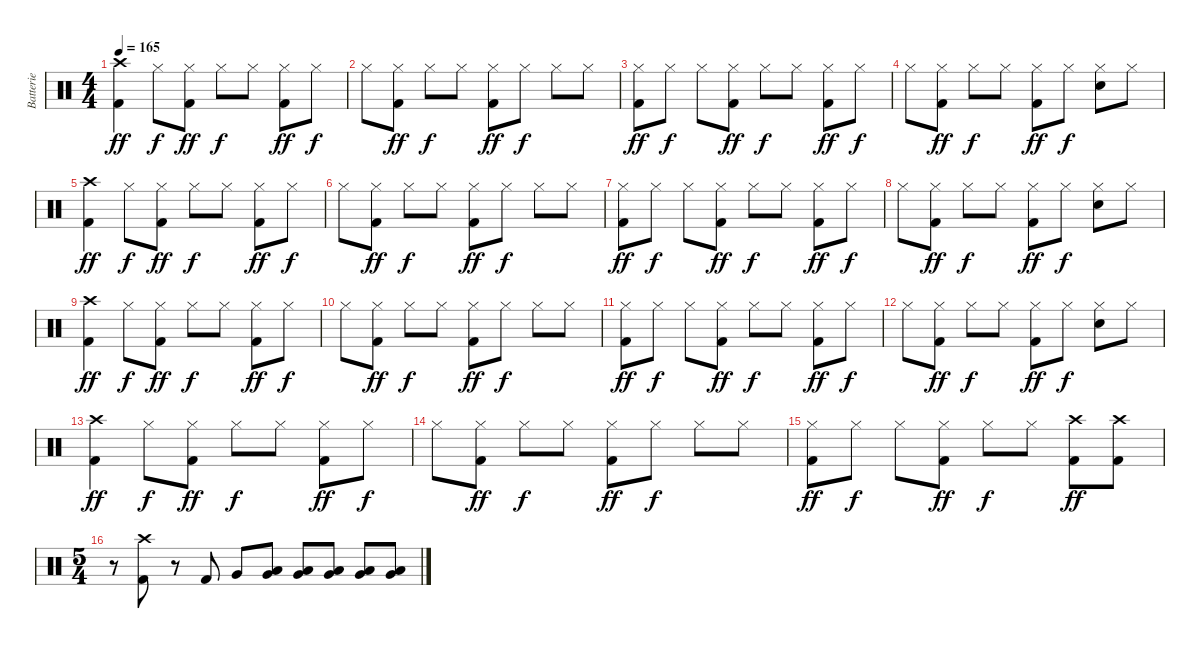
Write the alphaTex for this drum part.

\track ("Batterie" "Batterie") {instrument percussion}
\staff {score}
\articulation defaults
\ts (4 4)
\tempo 165
\clef neutral
\ks c
("Crash high (hit)" "Kick (hit) 2").4{dy ff} "Hi-Hat (closed)".8{dy f} ("Hi-Hat (closed)" "Kick (hit) 2").8{dy ff} "Hi-Hat (closed)".8{dy f} "Hi-Hat (closed)".8 ("Hi-Hat (closed)" "Kick (hit) 2").8{dy ff} "Hi-Hat (closed)".8{dy f} |
"Hi-Hat (closed)".8 ("Hi-Hat (closed)" "Kick (hit) 2").8{dy ff} "Hi-Hat (closed)".8{dy f} "Hi-Hat (closed)".8 ("Hi-Hat (closed)" "Kick (hit) 2").8{dy ff} "Hi-Hat (closed)".8{dy f} "Hi-Hat (closed)".8 "Hi-Hat (closed)".8 |
("Hi-Hat (closed)" "Kick (hit) 2").8{dy ff} "Hi-Hat (closed)".8{dy f} "Hi-Hat (closed)".8 ("Hi-Hat (closed)" "Kick (hit) 2").8{dy ff} "Hi-Hat (closed)".8{dy f} "Hi-Hat (closed)".8 ("Hi-Hat (closed)" "Kick (hit) 2").8{dy ff} "Hi-Hat (closed)".8{dy f} |
"Hi-Hat (closed)".8 ("Hi-Hat (closed)" "Kick (hit) 2").8{dy ff} "Hi-Hat (closed)".8{dy f} "Hi-Hat (closed)".8 ("Hi-Hat (closed)" "Kick (hit) 2").8{dy ff} "Hi-Hat (closed)".8{dy f} ("Hi-Hat (closed)" "Snare (hit) 2").8 "Hi-Hat (closed)".8 |
("Crash high (hit)" "Kick (hit) 2").4{dy ff} "Hi-Hat (closed)".8{dy f} ("Hi-Hat (closed)" "Kick (hit) 2").8{dy ff} "Hi-Hat (closed)".8{dy f} "Hi-Hat (closed)".8 ("Hi-Hat (closed)" "Kick (hit) 2").8{dy ff} "Hi-Hat (closed)".8{dy f} |
"Hi-Hat (closed)".8 ("Hi-Hat (closed)" "Kick (hit) 2").8{dy ff} "Hi-Hat (closed)".8{dy f} "Hi-Hat (closed)".8 ("Hi-Hat (closed)" "Kick (hit) 2").8{dy ff} "Hi-Hat (closed)".8{dy f} "Hi-Hat (closed)".8 "Hi-Hat (closed)".8 |
("Hi-Hat (closed)" "Kick (hit) 2").8{dy ff} "Hi-Hat (closed)".8{dy f} "Hi-Hat (closed)".8 ("Hi-Hat (closed)" "Kick (hit) 2").8{dy ff} "Hi-Hat (closed)".8{dy f} "Hi-Hat (closed)".8 ("Hi-Hat (closed)" "Kick (hit) 2").8{dy ff} "Hi-Hat (closed)".8{dy f} |
"Hi-Hat (closed)".8 ("Hi-Hat (closed)" "Kick (hit) 2").8{dy ff} "Hi-Hat (closed)".8{dy f} "Hi-Hat (closed)".8 ("Hi-Hat (closed)" "Kick (hit) 2").8{dy ff} "Hi-Hat (closed)".8{dy f} ("Hi-Hat (closed)" "Snare (hit) 2").8 "Hi-Hat (closed)".8 |
("Crash high (hit)" "Kick (hit) 2").4{dy ff} "Hi-Hat (closed)".8{dy f} ("Hi-Hat (closed)" "Kick (hit) 2").8{dy ff} "Hi-Hat (closed)".8{dy f} "Hi-Hat (closed)".8 ("Hi-Hat (closed)" "Kick (hit) 2").8{dy ff} "Hi-Hat (closed)".8{dy f} |
"Hi-Hat (closed)".8 ("Hi-Hat (closed)" "Kick (hit) 2").8{dy ff} "Hi-Hat (closed)".8{dy f} "Hi-Hat (closed)".8 ("Hi-Hat (closed)" "Kick (hit) 2").8{dy ff} "Hi-Hat (closed)".8{dy f} "Hi-Hat (closed)".8 "Hi-Hat (closed)".8 |
("Hi-Hat (closed)" "Kick (hit) 2").8{dy ff} "Hi-Hat (closed)".8{dy f} "Hi-Hat (closed)".8 ("Hi-Hat (closed)" "Kick (hit) 2").8{dy ff} "Hi-Hat (closed)".8{dy f} "Hi-Hat (closed)".8 ("Hi-Hat (closed)" "Kick (hit) 2").8{dy ff} "Hi-Hat (closed)".8{dy f} |
"Hi-Hat (closed)".8 ("Hi-Hat (closed)" "Kick (hit) 2").8{dy ff} "Hi-Hat (closed)".8{dy f} "Hi-Hat (closed)".8 ("Hi-Hat (closed)" "Kick (hit) 2").8{dy ff} "Hi-Hat (closed)".8{dy f} ("Hi-Hat (closed)" "Snare (hit) 2").8 "Hi-Hat (closed)".8 |
("Crash high (hit)" "Kick (hit) 2").4{dy ff} "Hi-Hat (closed)".8{dy f} ("Hi-Hat (closed)" "Kick (hit) 2").8{dy ff} "Hi-Hat (closed)".8{dy f} "Hi-Hat (closed)".8 ("Hi-Hat (closed)" "Kick (hit) 2").8{dy ff} "Hi-Hat (closed)".8{dy f} |
"Hi-Hat (closed)".8 ("Hi-Hat (closed)" "Kick (hit) 2").8{dy ff} "Hi-Hat (closed)".8{dy f} "Hi-Hat (closed)".8 ("Hi-Hat (closed)" "Kick (hit) 2").8{dy ff} "Hi-Hat (closed)".8{dy f} "Hi-Hat (closed)".8 "Hi-Hat (closed)".8 |
("Hi-Hat (closed)" "Kick (hit) 2").8{dy ff} "Hi-Hat (closed)".8{dy f} "Hi-Hat (closed)".8 ("Hi-Hat (closed)" "Kick (hit) 2").8{dy ff} "Hi-Hat (closed)".8{dy f} "Hi-Hat (closed)".8 ("Crash high (hit)" "Kick (hit) 2").8{dy ff} ("Crash high (hit)" "Kick (hit) 2").8 |
\ts (5 4)
r.8 ("Crash high (hit)" "Kick (hit) 2").8 r.8 "Kick (hit) 2".8 "Very Low Tom (hit)".8 ("Low Tom (hit)" "Very Low Tom (hit)").8 ("Low Tom (hit)" "Very Low Tom (hit)").8 ("Low Tom (hit)" "Very Low Tom (hit)").8 ("Low Tom (hit)" "Very Low Tom (hit)").8 ("Low Tom (hit)" "Very Low Tom (hit)").8
